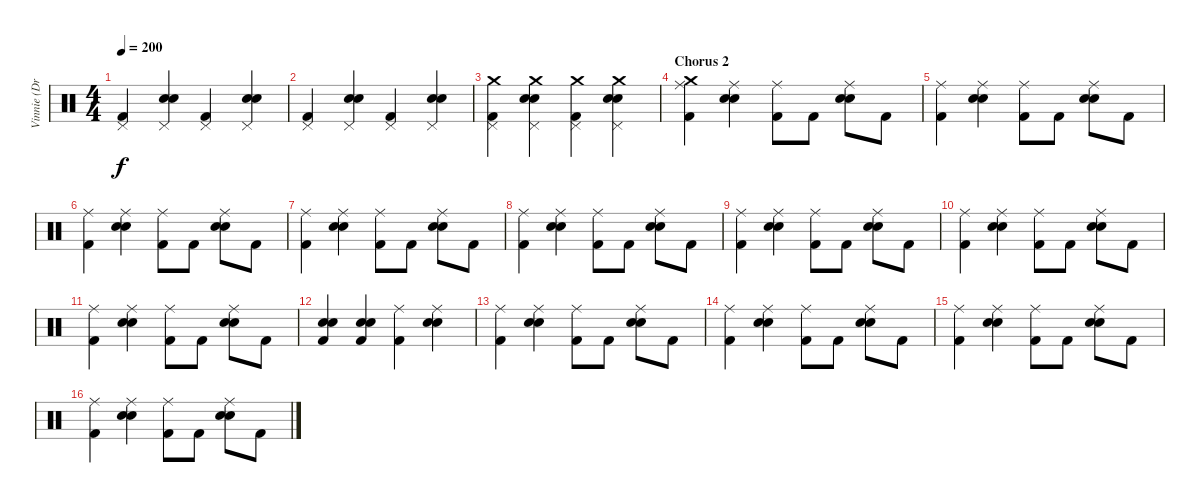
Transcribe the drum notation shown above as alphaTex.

\track ("Vinnie (Drums)" "Vinnie (Dr") {instrument percussion}
\staff {score}
\articulation defaults
\ts (4 4)
\tempo 200
\clef neutral
\ks c
("Kick (hit) 2" "Pedal Hi-Hat (hit)").4{dy f} ("Snare (hit) 2" "Electric Snare (hit)" "Pedal Hi-Hat (hit)").4 ("Kick (hit) 2" "Pedal Hi-Hat (hit)").4 ("Snare (hit) 2" "Electric Snare (hit)" "Pedal Hi-Hat (hit)").4 |
("Kick (hit) 2" "Pedal Hi-Hat (hit)").4 ("Snare (hit) 2" "Electric Snare (hit)" "Pedal Hi-Hat (hit)").4 ("Kick (hit) 2" "Pedal Hi-Hat (hit)").4 ("Snare (hit) 2" "Electric Snare (hit)" "Pedal Hi-Hat (hit)").4 |
("Kick (hit) 2" "Pedal Hi-Hat (hit)" "Crash medium (hit)").4 ("Snare (hit) 2" "Electric Snare (hit)" "Pedal Hi-Hat (hit)" "Crash medium (hit)").4 ("Kick (hit) 2" "Pedal Hi-Hat (hit)" "Crash medium (hit)").4 ("Snare (hit) 2" "Electric Snare (hit)" "Pedal Hi-Hat (hit)" "Crash medium (hit)").4 |
\section ("" "Chorus 2")
("Kick (hit) 2" "Ride (middle)" "Crash medium (hit)").4 ("Snare (hit) 2" "Electric Snare (hit)" "Ride (middle)").4 ("Kick (hit) 2" "Ride (middle)").8 "Kick (hit) 2".8 ("Snare (hit) 2" "Electric Snare (hit)" "Ride (middle)").8 "Kick (hit) 2".8 |
("Kick (hit) 2" "Ride (middle)").4 ("Snare (hit) 2" "Electric Snare (hit)" "Ride (middle)").4 ("Kick (hit) 2" "Ride (middle)").8 "Kick (hit) 2".8 ("Snare (hit) 2" "Electric Snare (hit)" "Ride (middle)").8 "Kick (hit) 2".8 |
("Kick (hit) 2" "Ride (middle)").4 ("Snare (hit) 2" "Electric Snare (hit)" "Ride (middle)").4 ("Kick (hit) 2" "Ride (middle)").8 "Kick (hit) 2".8 ("Snare (hit) 2" "Electric Snare (hit)" "Ride (middle)").8 "Kick (hit) 2".8 |
("Kick (hit) 2" "Ride (middle)").4 ("Snare (hit) 2" "Electric Snare (hit)" "Ride (middle)").4 ("Kick (hit) 2" "Ride (middle)").8 "Kick (hit) 2".8 ("Snare (hit) 2" "Electric Snare (hit)" "Ride (middle)").8 "Kick (hit) 2".8 |
("Kick (hit) 2" "Ride (middle)").4 ("Snare (hit) 2" "Electric Snare (hit)" "Ride (middle)").4 ("Kick (hit) 2" "Ride (middle)").8 "Kick (hit) 2".8 ("Snare (hit) 2" "Electric Snare (hit)" "Ride (middle)").8 "Kick (hit) 2".8 |
("Kick (hit) 2" "Ride (middle)").4 ("Snare (hit) 2" "Electric Snare (hit)" "Ride (middle)").4 ("Kick (hit) 2" "Ride (middle)").8 "Kick (hit) 2".8 ("Snare (hit) 2" "Electric Snare (hit)" "Ride (middle)").8 "Kick (hit) 2".8 |
("Kick (hit) 2" "Ride (middle)").4 ("Snare (hit) 2" "Electric Snare (hit)" "Ride (middle)").4 ("Kick (hit) 2" "Ride (middle)").8 "Kick (hit) 2".8 ("Snare (hit) 2" "Electric Snare (hit)" "Ride (middle)").8 "Kick (hit) 2".8 |
("Kick (hit) 2" "Ride (middle)").4 ("Snare (hit) 2" "Electric Snare (hit)" "Ride (middle)").4 ("Kick (hit) 2" "Ride (middle)").8 "Kick (hit) 2".8 ("Snare (hit) 2" "Electric Snare (hit)" "Ride (middle)").8 "Kick (hit) 2".8 |
("Kick (hit) 2" "Electric Snare (hit)" "Snare (hit) 2").4 ("Snare (hit) 2" "Electric Snare (hit)" "Kick (hit) 2").4 ("Kick (hit) 2" "Ride (middle)").4 ("Snare (hit) 2" "Electric Snare (hit)" "Ride (middle)").4 |
("Kick (hit) 2" "Ride (middle)").4 ("Snare (hit) 2" "Electric Snare (hit)" "Ride (middle)").4 ("Kick (hit) 2" "Ride (middle)").8 "Kick (hit) 2".8 ("Snare (hit) 2" "Electric Snare (hit)" "Ride (middle)").8 "Kick (hit) 2".8 |
("Kick (hit) 2" "Ride (middle)").4 ("Snare (hit) 2" "Electric Snare (hit)" "Ride (middle)").4 ("Kick (hit) 2" "Ride (middle)").8 "Kick (hit) 2".8 ("Snare (hit) 2" "Electric Snare (hit)" "Ride (middle)").8 "Kick (hit) 2".8 |
("Kick (hit) 2" "Ride (middle)").4 ("Snare (hit) 2" "Electric Snare (hit)" "Ride (middle)").4 ("Kick (hit) 2" "Ride (middle)").8 "Kick (hit) 2".8 ("Snare (hit) 2" "Electric Snare (hit)" "Ride (middle)").8 "Kick (hit) 2".8 |
("Kick (hit) 2" "Ride (middle)").4 ("Snare (hit) 2" "Electric Snare (hit)" "Ride (middle)").4 ("Kick (hit) 2" "Ride (middle)").8 "Kick (hit) 2".8 ("Snare (hit) 2" "Electric Snare (hit)" "Ride (middle)").8 "Kick (hit) 2".8
